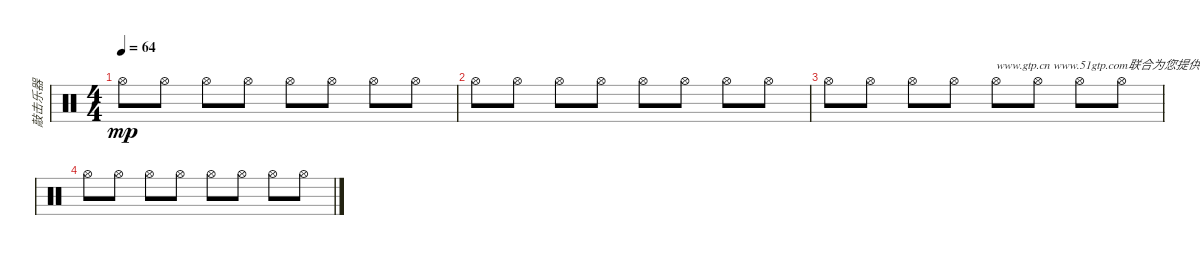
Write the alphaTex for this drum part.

\track ("敲击乐器" "敲击乐器") {instrument percussion}
\staff {score}
\articulation defaults
\ts (4 4)
\tempo 64
\clef neutral
\ks c "Hi-Hat (open)".8{dy mp} "Hi-Hat (open)".8 "Hi-Hat (open)".8 "Hi-Hat (open)".8 "Hi-Hat (open)".8 "Hi-Hat (open)".8 "Hi-Hat (open)".8 "Hi-Hat (open)".8
|
"Hi-Hat (open)".8 "Hi-Hat (open)".8 "Hi-Hat (open)".8 "Hi-Hat (open)".8 "Hi-Hat (open)".8 "Hi-Hat (open)".8 "Hi-Hat (open)".8 "Hi-Hat (open)".8 |
"Hi-Hat (open)".8 "Hi-Hat (open)".8 "Hi-Hat (open)".8 "Hi-Hat (open)".8 "Hi-Hat (open)".8{txt "www.gtp.cn www.51gtp.com联合为您提供优秀的GTP!"} "Hi-Hat (open)".8 "Hi-Hat (open)".8 "Hi-Hat (open)".8 |
"Hi-Hat (open)".8 "Hi-Hat (open)".8 "Hi-Hat (open)".8 "Hi-Hat (open)".8 "Hi-Hat (open)".8 "Hi-Hat (open)".8 "Hi-Hat (open)".8 "Hi-Hat (open)".8
